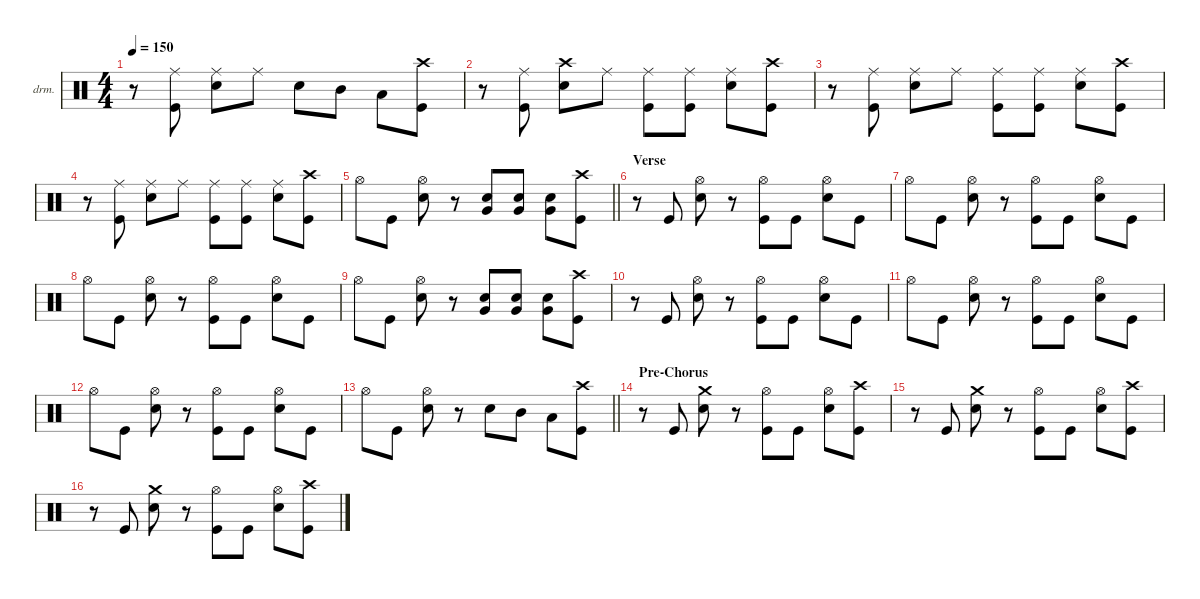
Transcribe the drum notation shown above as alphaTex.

\defaultSystemsLayout 4
\hideDynamics
\bracketExtendMode nobrackets
\firstSystemTrackNameOrientation horizontal
\otherSystemsTrackNameOrientation horizontal
\track ("Stix Zadinia" "drm.") {instrument percussion}
\staff {score}
\articulation defaults
\ts (4 4)
\tempo 150
\clef neutral
\ks c
r.8{dy f} ("Ride (middle)" "Kick (hit)").8 ("Ride (middle)" "Snare (hit) 2").8 "Ride (middle)".8 "Snare (hit) 2".8 "Mid Tom (hit)".8 "Low Tom (hit)".8 ("Crash high (hit)" "Kick (hit)").8 |
r.8 ("Ride (middle)" "Kick (hit)").8 ("Crash high (hit)" "Snare (hit) 2").8 "Ride (middle)".8 ("Ride (middle)" "Kick (hit)").8 ("Ride (middle)" "Kick (hit)").8 ("Ride (middle)" "Snare (hit) 2").8 ("Crash high (hit)" "Kick (hit)").8 |
r.8 ("Ride (middle)" "Kick (hit)").8 ("Ride (middle)" "Snare (hit) 2").8 "Ride (middle)".8 ("Ride (middle)" "Kick (hit)").8 ("Ride (middle)" "Kick (hit)").8 ("Ride (middle)" "Snare (hit) 2").8 ("Crash high (hit)" "Kick (hit)").8 |
r.8 ("Ride (middle)" "Kick (hit)").8 ("Ride (middle)" "Snare (hit) 2").8 "Ride (middle)".8 ("Ride (middle)" "Kick (hit)").8 ("Ride (middle)" "Kick (hit)").8 ("Ride (middle)" "Snare (hit) 2").8 ("Crash high (hit)" "Kick (hit)").8 |
\barLineRight lightlight "Hi-Hat (open)".8 "Kick (hit)".8
("Hi-Hat (open)" "Snare (hit) 2").8 r.8 ("Snare (hit) 2" "Very Low Tom (hit)").8 ("Snare (hit) 2" "Very Low Tom (hit)").8 ("Snare (hit) 2" "Very Low Tom (hit)").8 ("Crash high (hit)" "Kick (hit)").8 |
\section ("" "Verse")
r.8 "Kick (hit)".8 ("Hi-Hat (open)" "Snare (hit) 2").8 r.8 ("Hi-Hat (open)" "Kick (hit)").8 "Kick (hit)".8 ("Hi-Hat (open)" "Snare (hit) 2").8 "Kick (hit)".8 |
"Hi-Hat (open)".8 "Kick (hit)".8 ("Hi-Hat (open)" "Snare (hit) 2").8 r.8 ("Hi-Hat (open)" "Kick (hit)").8 "Kick (hit)".8 ("Hi-Hat (open)" "Snare (hit) 2").8 "Kick (hit)".8 |
"Hi-Hat (open)".8 "Kick (hit)".8 ("Hi-Hat (open)" "Snare (hit) 2").8 r.8 ("Hi-Hat (open)" "Kick (hit)").8 "Kick (hit)".8 ("Hi-Hat (open)" "Snare (hit) 2").8 "Kick (hit)".8 |
"Hi-Hat (open)".8 "Kick (hit)".8 ("Hi-Hat (open)" "Snare (hit) 2").8 r.8 ("Very Low Tom (hit)" "Snare (hit) 2").8 ("Very Low Tom (hit)" "Snare (hit) 2").8 ("Very Low Tom (hit)" "Snare (hit) 2").8 ("Crash high (hit)" "Kick (hit)").8 |
r.8 "Kick (hit)".8 ("Hi-Hat (open)" "Snare (hit) 2").8 r.8 ("Hi-Hat (open)" "Kick (hit)").8 "Kick (hit)".8 ("Hi-Hat (open)" "Snare (hit) 2").8 "Kick (hit)".8 |
"Hi-Hat (open)".8 "Kick (hit)".8 ("Hi-Hat (open)" "Snare (hit) 2").8 r.8 ("Hi-Hat (open)" "Kick (hit)").8 "Kick (hit)".8 ("Hi-Hat (open)" "Snare (hit) 2").8 "Kick (hit)".8 |
"Hi-Hat (open)".8 "Kick (hit)".8 ("Hi-Hat (open)" "Snare (hit) 2").8 r.8 ("Hi-Hat (open)" "Kick (hit)").8 "Kick (hit)".8 ("Hi-Hat (open)" "Snare (hit) 2").8 "Kick (hit)".8 |
\barLineRight lightlight "Hi-Hat (open)".8 "Kick (hit)".8
("Hi-Hat (open)" "Snare (hit) 2").8 r.8 "Snare (hit) 2".8 "Mid Tom (hit)".8 "Low Tom (hit)".8 ("Crash high (hit)" "Kick (hit)").8 |
\section ("" "Pre-Chorus")
r.8 "Kick (hit)".8 ("Crash medium (hit)" "Snare (hit) 2").8 r.8 ("Hi-Hat (open)" "Kick (hit)").8 "Kick (hit)".8 ("Hi-Hat (open)" "Snare (hit) 2").8 ("Crash high (hit)" "Kick (hit)").8 |
r.8 "Kick (hit)".8 ("Crash medium (hit)" "Snare (hit) 2").8 r.8 ("Hi-Hat (open)" "Kick (hit)").8 "Kick (hit)".8 ("Hi-Hat (open)" "Snare (hit) 2").8 ("Crash high (hit)" "Kick (hit)").8 |
r.8 "Kick (hit)".8 ("Crash medium (hit)" "Snare (hit) 2").8 r.8 ("Hi-Hat (open)" "Kick (hit)").8 "Kick (hit)".8 ("Hi-Hat (open)" "Snare (hit) 2").8 ("Crash high (hit)" "Kick (hit)").8
